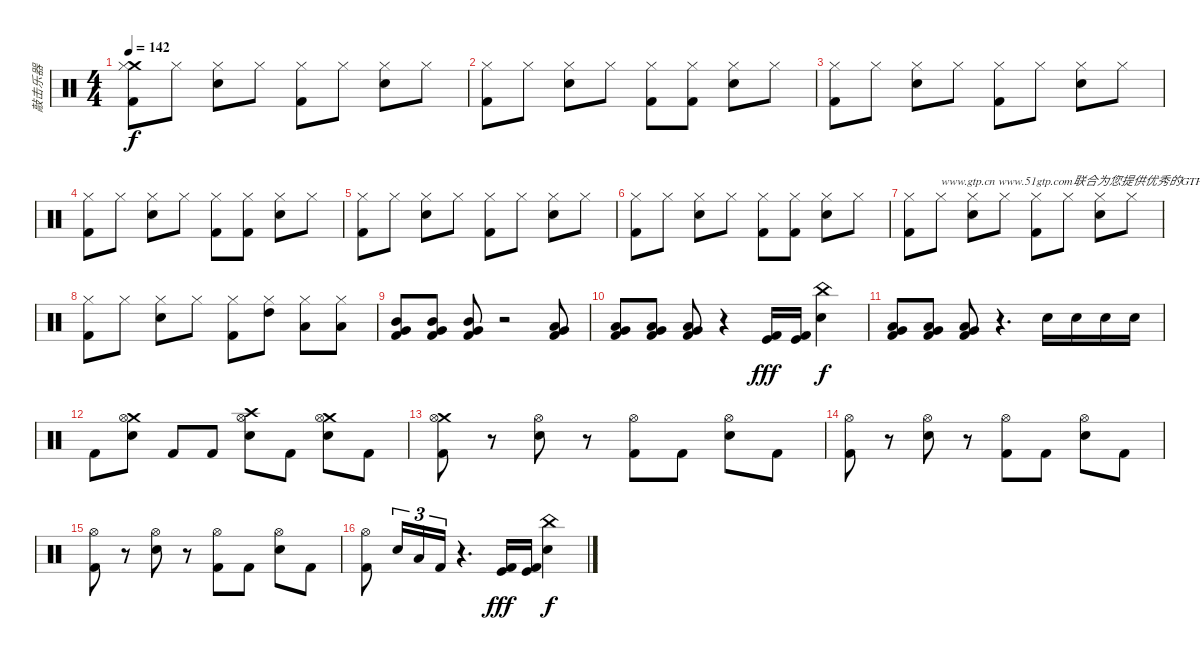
\track ("敲击乐器" "敲击乐器") {instrument percussion}
\staff {score}
\articulation defaults
\ts (4 4)
\tempo 142
\clef neutral
\ks c
("Crash medium (hit)" "Hi-Hat (closed)" "Kick (hit) 2").8{dy f} "Hi-Hat (closed)".8 ("Snare (hit) 2" "Hi-Hat (closed)").8 "Hi-Hat (closed)".8 ("Hi-Hat (closed)" "Kick (hit) 2").8 "Hi-Hat (closed)".8 ("Snare (hit) 2" "Hi-Hat (closed)").8 "Hi-Hat (closed)".8 |
("Hi-Hat (closed)" "Kick (hit) 2").8 "Hi-Hat (closed)".8 ("Snare (hit) 2" "Hi-Hat (closed)").8 "Hi-Hat (closed)".8 ("Hi-Hat (closed)" "Kick (hit) 2").8 ("Hi-Hat (closed)" "Kick (hit) 2").8 ("Snare (hit) 2" "Hi-Hat (closed)").8 "Hi-Hat (closed)".8 |
("Hi-Hat (closed)" "Kick (hit) 2").8 "Hi-Hat (closed)".8 ("Snare (hit) 2" "Hi-Hat (closed)").8 "Hi-Hat (closed)".8 ("Hi-Hat (closed)" "Kick (hit) 2").8 "Hi-Hat (closed)".8 ("Snare (hit) 2" "Hi-Hat (closed)").8 "Hi-Hat (closed)".8 |
("Hi-Hat (closed)" "Kick (hit) 2").8 "Hi-Hat (closed)".8 ("Snare (hit) 2" "Hi-Hat (closed)").8 "Hi-Hat (closed)".8 ("Hi-Hat (closed)" "Kick (hit) 2").8 ("Hi-Hat (closed)" "Kick (hit) 2").8 ("Snare (hit) 2" "Hi-Hat (closed)").8 "Hi-Hat (closed)".8 |
("Hi-Hat (closed)" "Kick (hit) 2").8 "Hi-Hat (closed)".8 ("Snare (hit) 2" "Hi-Hat (closed)").8 "Hi-Hat (closed)".8 ("Hi-Hat (closed)" "Kick (hit) 2").8 "Hi-Hat (closed)".8 ("Snare (hit) 2" "Hi-Hat (closed)").8 "Hi-Hat (closed)".8 |
("Hi-Hat (closed)" "Kick (hit) 2").8 "Hi-Hat (closed)".8 ("Snare (hit) 2" "Hi-Hat (closed)").8 "Hi-Hat (closed)".8 ("Hi-Hat (closed)" "Kick (hit) 2").8 ("Hi-Hat (closed)" "Kick (hit) 2").8 ("Snare (hit) 2" "Hi-Hat (closed)").8 "Hi-Hat (closed)".8 |
("Hi-Hat (closed)" "Kick (hit) 2").8 "Hi-Hat (closed)".8{txt "www.gtp.cn www.51gtp.com联合为您提供优秀的GTP!"} ("Snare (hit) 2" "Hi-Hat (closed)").8 "Hi-Hat (closed)".8 ("Hi-Hat (closed)" "Kick (hit) 2").8 "Hi-Hat (closed)".8 ("Snare (hit) 2" "Hi-Hat (closed)").8 "Hi-Hat (closed)".8 |
("Hi-Hat (closed)" "Kick (hit) 2").8 "Hi-Hat (closed)".8 ("Snare (hit) 2" "Hi-Hat (closed)").8 "Hi-Hat (closed)".8 ("Hi-Hat (closed)" "Kick (hit) 2").8 ("High Tom (hit)" "Hi-Hat (closed)").8 ("Low Tom (hit)" "Hi-Hat (closed)").8 ("Low Floor Tom (hit)" "Hi-Hat (closed)").8 |
("Mid Tom (hit)" "Very Low Tom (hit)" "Kick (hit) 2").8 ("Mid Tom (hit)" "Very Low Tom (hit)" "Kick (hit) 2").8 ("Mid Tom (hit)" "Very Low Tom (hit)" "Kick (hit) 2").8 r.2 ("Low Tom (hit)" "Very Low Tom (hit)" "Kick (hit) 2").8 |
("Low Tom (hit)" "Very Low Tom (hit)" "Kick (hit) 2").8 ("Low Tom (hit)" "Very Low Tom (hit)" "Kick (hit) 2").8 ("Low Tom (hit)" "Very Low Tom (hit)" "Kick (hit) 2").8 r.4 ("Kick (hit)" "Kick (hit) 2").16{dy fff} ("Kick (hit)" "Kick (hit) 2").16 ("Snare (hit) 2" "China (hit)").4{dy f} |
("Very Low Tom (hit)" "Low Floor Tom (hit)" "Kick (hit) 2").8 ("Very Low Tom (hit)" "Low Floor Tom (hit)" "Kick (hit) 2").8 ("Very Low Tom (hit)" "Low Floor Tom (hit)" "Kick (hit) 2").8 r.4{d} "Snare (hit) 2".16 "Snare (hit) 2".16 "Snare (hit) 2".16 "Snare (hit) 2".16 |
"Kick (hit) 2".8 ("Snare (hit) 2" "Crash medium (hit)" "Hi-Hat (open)").8 "Kick (hit) 2".8 "Kick (hit) 2".8 ("Snare (hit) 2" "Crash high (hit)" "Hi-Hat (open)").8 "Kick (hit) 2".8 ("Snare (hit) 2" "Crash medium (hit)" "Hi-Hat (open)").8 "Kick (hit) 2".8 |
("Crash medium (hit)" "Hi-Hat (open)" "Kick (hit) 2").8 r.8 ("Snare (hit) 2" "Hi-Hat (open)").8 r.8 ("Hi-Hat (open)" "Kick (hit) 2").8 "Kick (hit) 2".8 ("Snare (hit) 2" "Hi-Hat (open)").8 "Kick (hit) 2".8 |
("Hi-Hat (open)" "Kick (hit) 2").8 r.8 ("Snare (hit) 2" "Hi-Hat (open)").8 r.8 ("Hi-Hat (open)" "Kick (hit) 2").8 "Kick (hit) 2".8 ("Snare (hit) 2" "Hi-Hat (open)").8 "Kick (hit) 2".8 |
("Hi-Hat (open)" "Kick (hit) 2").8 r.8 ("Snare (hit) 2" "Hi-Hat (open)").8 r.8 ("Hi-Hat (open)" "Kick (hit) 2").8 "Kick (hit) 2".8 ("Snare (hit) 2" "Hi-Hat (open)").8 "Kick (hit) 2".8 |
("Hi-Hat (open)" "Kick (hit) 2").8 "Snare (hit) 2".16{tu (3 2)} "Low Floor Tom (hit)".16{tu (3 2)} "Kick (hit) 2".16{tu (3 2)} r.4{d} ("Kick (hit)" "Kick (hit) 2").16{dy fff} ("Kick (hit)" "Kick (hit) 2").16 ("Snare (hit) 2" "China (hit)").4{dy f}
